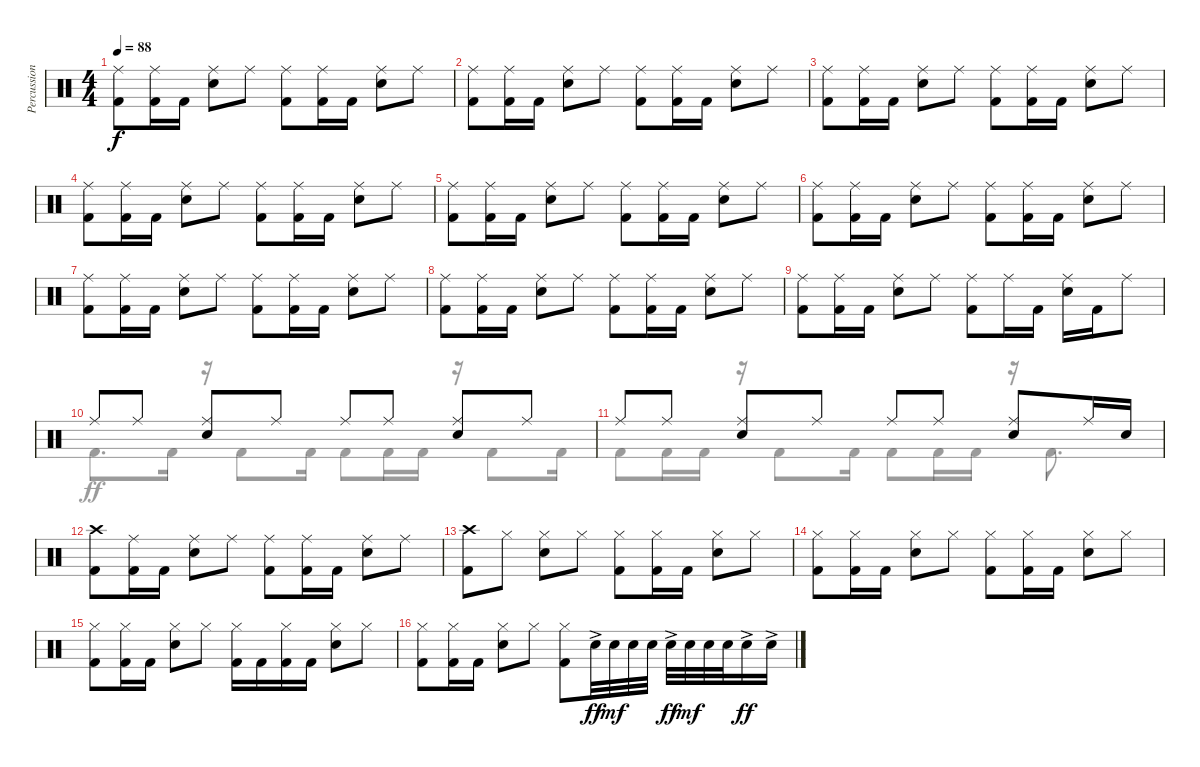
\track ("Percussion" "Percussion") {instrument percussion}
\staff {score}
\articulation defaults
\voice
\ts (4 4)
\tempo 88
\clef neutral
\ks aminor
("Ride (middle)" "Kick (hit) 2").8{dy f} ("Ride (middle)" "Kick (hit) 2").16 "Kick (hit) 2".16 ("Ride (middle)" "Snare (hit) 2").8 "Ride (middle)".8 ("Ride (middle)" "Kick (hit) 2").8 ("Ride (middle)" "Kick (hit) 2").16 "Kick (hit) 2".16 ("Ride (middle)" "Snare (hit) 2").8 "Ride (middle)".8 |
("Ride (middle)" "Kick (hit) 2").8 ("Ride (middle)" "Kick (hit) 2").16 "Kick (hit) 2".16 ("Ride (middle)" "Snare (hit) 2").8 "Ride (middle)".8 ("Ride (middle)" "Kick (hit) 2").8 ("Ride (middle)" "Kick (hit) 2").16 "Kick (hit) 2".16 ("Ride (middle)" "Snare (hit) 2").8 "Ride (middle)".8 |
("Ride (middle)" "Kick (hit) 2").8 ("Ride (middle)" "Kick (hit) 2").16 "Kick (hit) 2".16 ("Ride (middle)" "Snare (hit) 2").8 "Ride (middle)".8 ("Ride (middle)" "Kick (hit) 2").8 ("Ride (middle)" "Kick (hit) 2").16 "Kick (hit) 2".16 ("Ride (middle)" "Snare (hit) 2").8 "Ride (middle)".8 |
("Ride (middle)" "Kick (hit) 2").8 ("Ride (middle)" "Kick (hit) 2").16 "Kick (hit) 2".16 ("Ride (middle)" "Snare (hit) 2").8 "Ride (middle)".8 ("Ride (middle)" "Kick (hit) 2").8 ("Ride (middle)" "Kick (hit) 2").16 "Kick (hit) 2".16 ("Ride (middle)" "Snare (hit) 2").8 "Ride (middle)".8 |
("Ride (middle)" "Kick (hit) 2").8 ("Ride (middle)" "Kick (hit) 2").16 "Kick (hit) 2".16 ("Ride (middle)" "Snare (hit) 2").8 "Ride (middle)".8 ("Ride (middle)" "Kick (hit) 2").8 ("Ride (middle)" "Kick (hit) 2").16 "Kick (hit) 2".16 ("Ride (middle)" "Snare (hit) 2").8 "Ride (middle)".8 |
("Ride (middle)" "Kick (hit) 2").8 ("Ride (middle)" "Kick (hit) 2").16 "Kick (hit) 2".16 ("Ride (middle)" "Snare (hit) 2").8 "Ride (middle)".8 ("Ride (middle)" "Kick (hit) 2").8 ("Ride (middle)" "Kick (hit) 2").16 "Kick (hit) 2".16 ("Ride (middle)" "Snare (hit) 2").8 "Ride (middle)".8 |
("Ride (middle)" "Kick (hit) 2").8 ("Ride (middle)" "Kick (hit) 2").16 "Kick (hit) 2".16 ("Ride (middle)" "Snare (hit) 2").8 "Ride (middle)".8 ("Ride (middle)" "Kick (hit) 2").8 ("Ride (middle)" "Kick (hit) 2").16 "Kick (hit) 2".16 ("Ride (middle)" "Snare (hit) 2").8 "Ride (middle)".8 |
("Ride (middle)" "Kick (hit) 2").8 ("Ride (middle)" "Kick (hit) 2").16 "Kick (hit) 2".16 ("Ride (middle)" "Snare (hit) 2").8 "Ride (middle)".8 ("Ride (middle)" "Kick (hit) 2").8 ("Ride (middle)" "Kick (hit) 2").16 "Kick (hit) 2".16 ("Ride (middle)" "Snare (hit) 2").8 "Ride (middle)".8 |
("Ride (middle)" "Kick (hit) 2").8 ("Ride (middle)" "Kick (hit) 2").16 "Kick (hit) 2".16 ("Ride (middle)" "Snare (hit) 2").8 "Ride (middle)".8 ("Ride (middle)" "Kick (hit) 2").8 "Ride (middle)".16 "Kick (hit) 2".16 ("Ride (middle)" "Snare (hit) 2").16 "Kick (hit) 2".16 "Ride (middle)".8 |
"Ride (middle)".8 "Ride (middle)".8 ("Ride (middle)" "Snare (hit) 2").8 "Ride (middle)".8 "Ride (middle)".8 "Ride (middle)".8 ("Ride (middle)" "Snare (hit) 2").8 "Ride (middle)".8 |
"Ride (middle)".8 "Ride (middle)".8 ("Ride (middle)" "Snare (hit) 2").8 "Ride (middle)".8 "Ride (middle)".8 "Ride (middle)".8 ("Ride (middle)" "Snare (hit) 2").8 "Ride (middle)".16 "Snare (hit) 2".16 |
("Crash high (hit)" "Kick (hit) 2").8 ("Ride (middle)" "Kick (hit) 2").16 "Kick (hit) 2".16 ("Ride (middle)" "Snare (hit) 2").8 "Ride (middle)".8 ("Ride (middle)" "Kick (hit) 2").8 ("Ride (middle)" "Kick (hit) 2").16 "Kick (hit) 2".16 ("Ride (middle)" "Snare (hit) 2").8 "Ride (middle)".8 |
("Crash high (hit)" "Kick (hit) 2").8 "Hi-Hat (closed)".8 ("Hi-Hat (closed)" "Snare (hit) 2").8 "Hi-Hat (closed)".8 ("Hi-Hat (closed)" "Kick (hit) 2").8 ("Hi-Hat (closed)" "Kick (hit) 2").16 "Kick (hit) 2".16 ("Hi-Hat (closed)" "Snare (hit) 2").8 "Hi-Hat (closed)".8 |
("Hi-Hat (closed)" "Kick (hit) 2").8 ("Hi-Hat (closed)" "Kick (hit) 2").16 "Kick (hit) 2".16 ("Hi-Hat (closed)" "Snare (hit) 2").8 "Hi-Hat (closed)".8 ("Hi-Hat (closed)" "Kick (hit) 2").8 ("Hi-Hat (closed)" "Kick (hit) 2").16 "Kick (hit) 2".16 ("Hi-Hat (closed)" "Snare (hit) 2").8 "Hi-Hat (closed)".8 |
("Hi-Hat (closed)" "Kick (hit) 2").8 ("Hi-Hat (closed)" "Kick (hit) 2").16 "Kick (hit) 2".16 ("Hi-Hat (closed)" "Snare (hit) 2").8 "Hi-Hat (closed)".8 ("Hi-Hat (closed)" "Kick (hit) 2").16 "Kick (hit) 2".16 ("Hi-Hat (closed)" "Kick (hit) 2").16 "Kick (hit) 2".16 ("Hi-Hat (closed)" "Snare (hit) 2").8 "Hi-Hat (closed)".8 |
("Hi-Hat (closed)" "Kick (hit) 2").8 ("Hi-Hat (closed)" "Kick (hit) 2").16 "Kick (hit) 2".16 ("Hi-Hat (closed)" "Snare (hit) 2").8 "Hi-Hat (closed)".8 ("Hi-Hat (closed)" "Kick (hit) 2").8 "Snare (hit) 2"{ac}.32{dy ff} "Snare (hit) 2".32{dy mf} "Snare (hit) 2".32 "Snare (hit) 2".32 "Snare (hit) 2"{ac}.32{dy ff} "Snare (hit) 2".32{dy mf} "Snare (hit) 2".32 "Snare (hit) 2".32 "Snare (hit) 2"{ac}.16{dy ff} "Snare (hit) 2"{ac}.16
\voice
\clef neutral
\ottava regular
\simile none
\ks aminor
|
|
|
|
|
|
|
|
|
"Kick (hit) 2".8{d} "Kick (hit) 2".16 r.16 "Kick (hit) 2".8 "Kick (hit) 2".16 "Kick (hit) 2".8 "Kick (hit) 2".16 "Kick (hit) 2".16 r.16 "Kick (hit) 2".8 "Kick (hit) 2".16 |
"Kick (hit) 2".8 "Kick (hit) 2".16 "Kick (hit) 2".16 r.16 "Kick (hit) 2".8 "Kick (hit) 2".16 "Kick (hit) 2".8 "Kick (hit) 2".16 "Kick (hit) 2".16 r.16 "Kick (hit) 2".8{d} |
|
|
|
|
